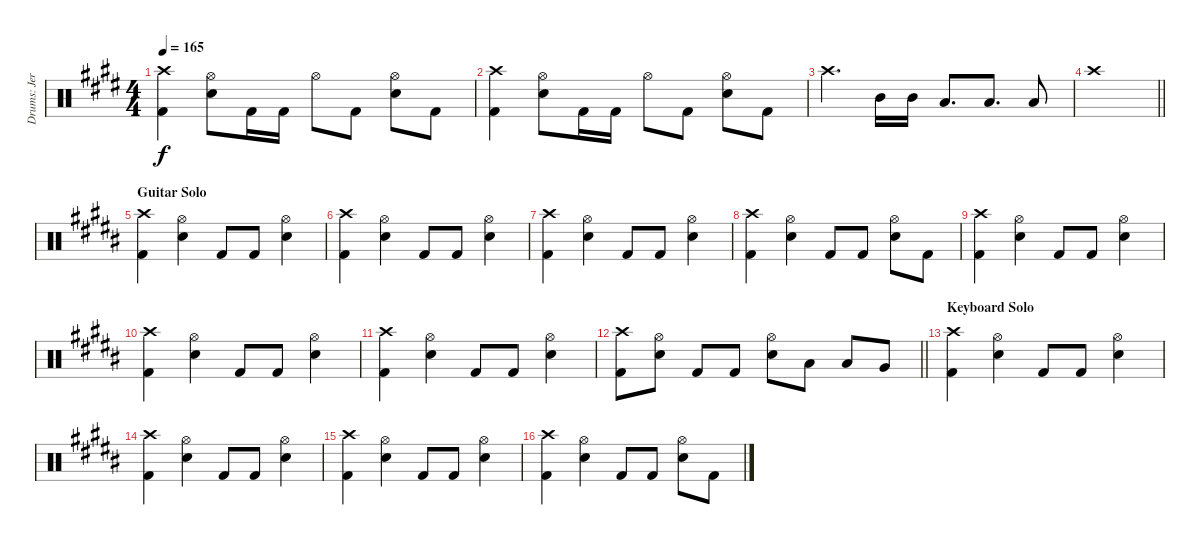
\track ("Drums: Jere Luokkamäki" "Drums: Jer") {instrument percussion}
\staff {score}
\articulation defaults
\ts (4 4)
\tempo 165
\clef neutral
\ks c#minor
("Crash high (hit)" "Kick (hit) 2").4{dy f} ("Hi-Hat (open)" "Electric Snare (hit)").8 "Kick (hit) 2".16 "Kick (hit) 2".16 "Hi-Hat (open)".8 "Kick (hit) 2".8 ("Hi-Hat (open)" "Electric Snare (hit)").8 "Kick (hit) 2".8 |
("Crash high (hit)" "Kick (hit) 2").4 ("Hi-Hat (open)" "Electric Snare (hit)").8 "Kick (hit) 2".16 "Kick (hit) 2".16 "Hi-Hat (open)".8 "Kick (hit) 2".8 ("Hi-Hat (open)" "Electric Snare (hit)").8 "Kick (hit) 2".8 |
"Crash high (hit)".4{d} "Mid Tom (hit)".16 "Mid Tom (hit)".16 "Low Tom (hit)".8{d} "Low Tom (hit)".8{d} "Low Tom (hit)".8 |
\barLineRight lightlight "Crash high (hit)".1
|
\section ("" "Guitar Solo")
\ks g#minor
("Crash high (hit)" "Kick (hit) 2").4 ("Hi-Hat (open)" "Electric Snare (hit)").4 "Kick (hit) 2".8 "Kick (hit) 2".8 ("Hi-Hat (open)" "Electric Snare (hit)").4 |
("Crash high (hit)" "Kick (hit) 2").4 ("Hi-Hat (open)" "Electric Snare (hit)").4 "Kick (hit) 2".8 "Kick (hit) 2".8 ("Hi-Hat (open)" "Electric Snare (hit)").4 |
("Crash high (hit)" "Kick (hit) 2").4 ("Hi-Hat (open)" "Electric Snare (hit)").4 "Kick (hit) 2".8 "Kick (hit) 2".8 ("Hi-Hat (open)" "Electric Snare (hit)").4 |
("Crash high (hit)" "Kick (hit) 2").4 ("Hi-Hat (open)" "Electric Snare (hit)").4 "Kick (hit) 2".8 "Kick (hit) 2".8 ("Hi-Hat (open)" "Electric Snare (hit)").8 "Kick (hit) 2".8 |
("Crash high (hit)" "Kick (hit) 2").4 ("Hi-Hat (open)" "Electric Snare (hit)").4 "Kick (hit) 2".8 "Kick (hit) 2".8 ("Hi-Hat (open)" "Electric Snare (hit)").4 |
("Crash high (hit)" "Kick (hit) 2").4 ("Hi-Hat (open)" "Electric Snare (hit)").4 "Kick (hit) 2".8 "Kick (hit) 2".8 ("Hi-Hat (open)" "Electric Snare (hit)").4 |
("Crash high (hit)" "Kick (hit) 2").4 ("Hi-Hat (open)" "Electric Snare (hit)").4 "Kick (hit) 2".8 "Kick (hit) 2".8 ("Hi-Hat (open)" "Electric Snare (hit)").4 |
\barLineRight lightlight
("Crash high (hit)" "Kick (hit) 2").8 ("Hi-Hat (open)" "Electric Snare (hit)").8 "Kick (hit) 2".8 "Kick (hit) 2".8 ("Hi-Hat (open)" "Electric Snare (hit)").8 "Low Tom (hit)".8 "Low Tom (hit)".8 "Very Low Tom (hit)".8 |
\section ("" "Keyboard Solo")
("Crash high (hit)" "Kick (hit) 2").4 ("Hi-Hat (open)" "Electric Snare (hit)").4 "Kick (hit) 2".8 "Kick (hit) 2".8 ("Hi-Hat (open)" "Electric Snare (hit)").4 |
("Crash high (hit)" "Kick (hit) 2").4 ("Hi-Hat (open)" "Electric Snare (hit)").4 "Kick (hit) 2".8 "Kick (hit) 2".8 ("Hi-Hat (open)" "Electric Snare (hit)").4 |
("Crash high (hit)" "Kick (hit) 2").4 ("Hi-Hat (open)" "Electric Snare (hit)").4 "Kick (hit) 2".8 "Kick (hit) 2".8 ("Hi-Hat (open)" "Electric Snare (hit)").4 |
("Crash high (hit)" "Kick (hit) 2").4 ("Hi-Hat (open)" "Electric Snare (hit)").4 "Kick (hit) 2".8 "Kick (hit) 2".8 ("Hi-Hat (open)" "Electric Snare (hit)").8 "Kick (hit) 2".8
